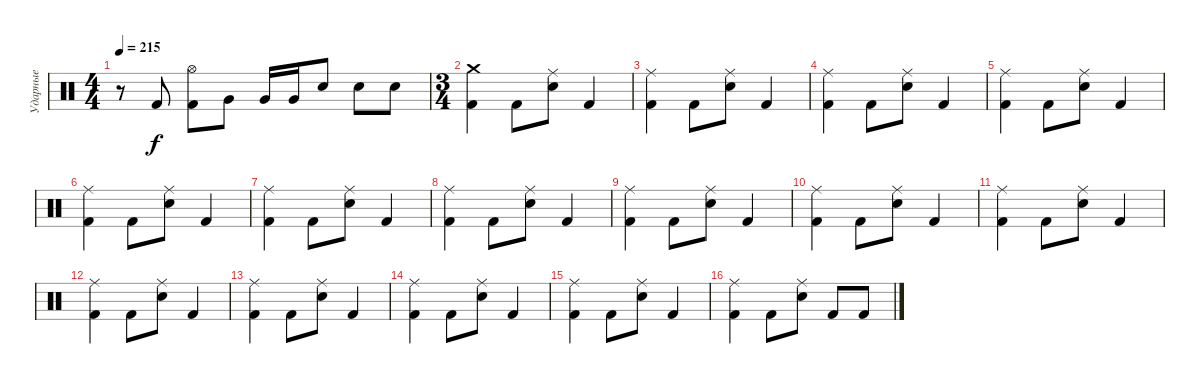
\track ("Ударные" "Ударные") {instrument percussion}
\staff {score}
\articulation defaults
\ts (4 4)
\tempo 215
\clef neutral
\ks c
r.8{dy f} "Kick (hit) 2".8 ("Hi-Hat (open)" "Kick (hit) 2").8 "Very Low Tom (hit)".8 "Very Low Tom (hit)".16 "Very Low Tom (hit)".16 "Snare (hit) 2".8 "Snare (hit) 2".8 "Snare (hit) 2".8 |
\ts (3 4)
("Crash medium (hit)" "Kick (hit) 2").4 "Kick (hit) 2".8 ("Ride (middle)" "Snare (hit) 2").8 "Kick (hit) 2".4 |
("Ride (middle)" "Kick (hit) 2").4 "Kick (hit) 2".8 ("Ride (middle)" "Snare (hit) 2").8 "Kick (hit) 2".4 |
("Ride (middle)" "Kick (hit) 2").4 "Kick (hit) 2".8 ("Ride (middle)" "Snare (hit) 2").8 "Kick (hit) 2".4 |
("Ride (middle)" "Kick (hit) 2").4 "Kick (hit) 2".8 ("Ride (middle)" "Snare (hit) 2").8 "Kick (hit) 2".4 |
("Ride (middle)" "Kick (hit) 2").4 "Kick (hit) 2".8 ("Ride (middle)" "Snare (hit) 2").8 "Kick (hit) 2".4 |
("Ride (middle)" "Kick (hit) 2").4 "Kick (hit) 2".8 ("Ride (middle)" "Snare (hit) 2").8 "Kick (hit) 2".4 |
("Ride (middle)" "Kick (hit) 2").4 "Kick (hit) 2".8 ("Ride (middle)" "Snare (hit) 2").8 "Kick (hit) 2".4 |
("Ride (middle)" "Kick (hit) 2").4 "Kick (hit) 2".8 ("Ride (middle)" "Snare (hit) 2").8 "Kick (hit) 2".4 |
("Ride (middle)" "Kick (hit) 2").4 "Kick (hit) 2".8 ("Ride (middle)" "Snare (hit) 2").8 "Kick (hit) 2".4 |
("Ride (middle)" "Kick (hit) 2").4 "Kick (hit) 2".8 ("Ride (middle)" "Snare (hit) 2").8 "Kick (hit) 2".4 |
("Ride (middle)" "Kick (hit) 2").4 "Kick (hit) 2".8 ("Ride (middle)" "Snare (hit) 2").8 "Kick (hit) 2".4 |
("Ride (middle)" "Kick (hit) 2").4 "Kick (hit) 2".8 ("Ride (middle)" "Snare (hit) 2").8 "Kick (hit) 2".4 |
("Ride (middle)" "Kick (hit) 2").4 "Kick (hit) 2".8 ("Ride (middle)" "Snare (hit) 2").8 "Kick (hit) 2".4 |
("Ride (middle)" "Kick (hit) 2").4 "Kick (hit) 2".8 ("Ride (middle)" "Snare (hit) 2").8 "Kick (hit) 2".4 |
("Ride (middle)" "Kick (hit) 2").4 "Kick (hit) 2".8 ("Ride (middle)" "Snare (hit) 2").8 "Kick (hit) 2".8 "Kick (hit) 2".8
